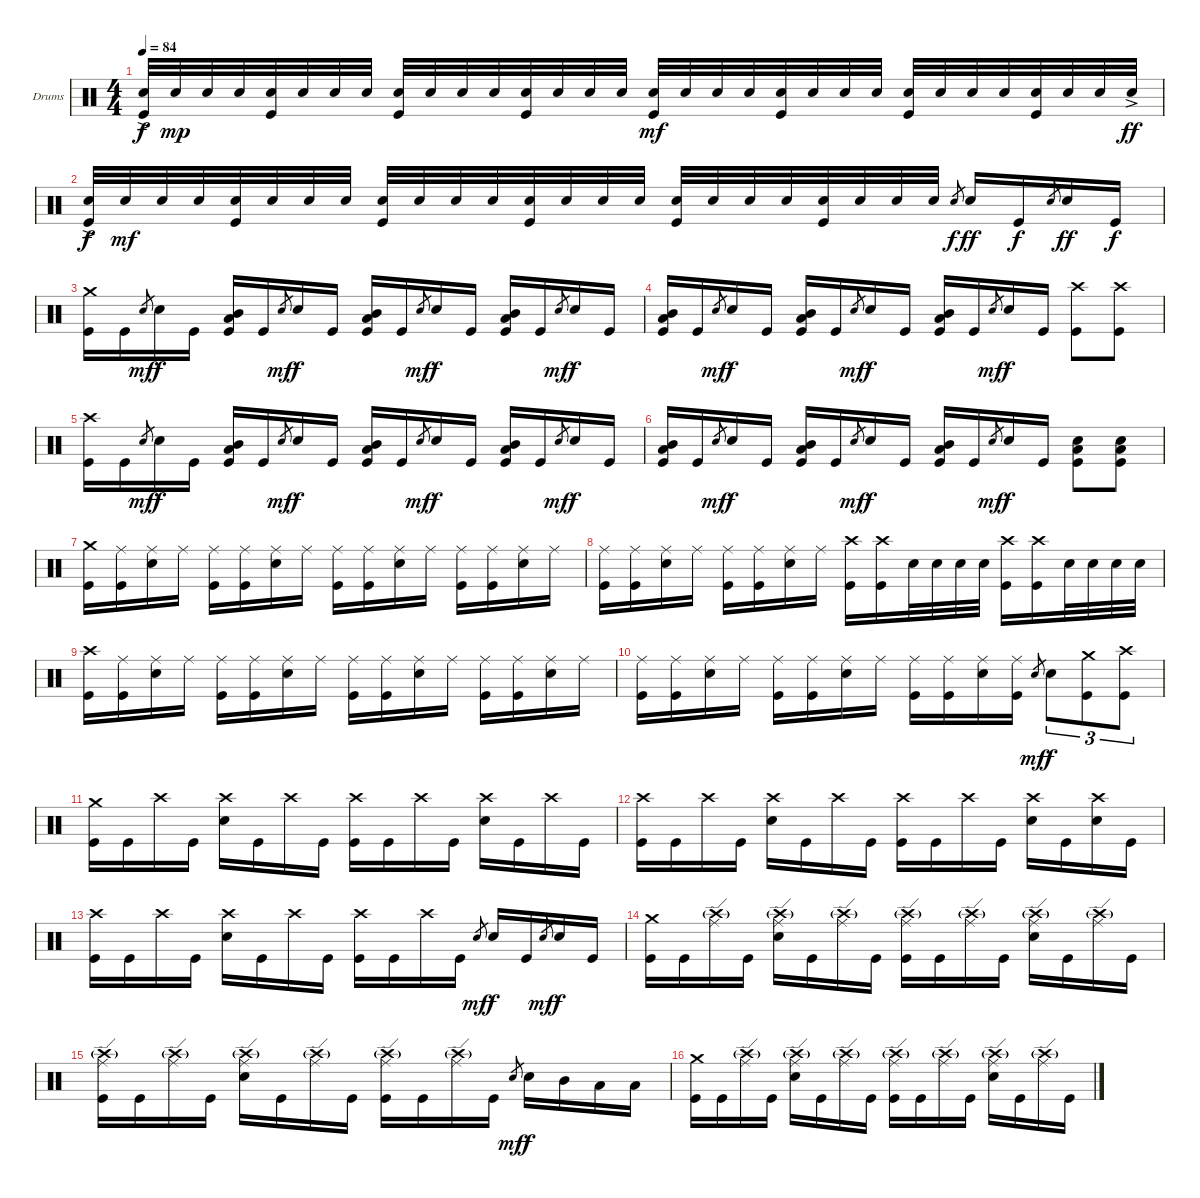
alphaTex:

\bracketExtendMode groupsimilarinstruments
\firstSystemTrackNameOrientation horizontal
\otherSystemsTrackNameOrientation horizontal
\track ("Drumkit" "Drums") {solo instrument percussion}
\staff {score}
\articulation defaults
\ts (4 4)
\tempo 84
\clef neutral
\ks c
("Snare (hit) 2"{ac} "Kick (hit)").32{dy f} "Snare (hit) 2".32{dy mp} "Snare (hit) 2".32 "Snare (hit) 2".32 ("Snare (hit) 2" "Kick (hit)").32 "Snare (hit) 2".32 "Snare (hit) 2".32 "Snare (hit) 2".32 ("Snare (hit) 2" "Kick (hit)").32 "Snare (hit) 2".32 "Snare (hit) 2".32 "Snare (hit) 2".32 ("Snare (hit) 2" "Kick (hit)").32 "Snare (hit) 2".32 "Snare (hit) 2".32 "Snare (hit) 2".32 ("Snare (hit) 2" "Kick (hit)").32{dy mf} "Snare (hit) 2".32 "Snare (hit) 2".32 "Snare (hit) 2".32 ("Snare (hit) 2" "Kick (hit)").32 "Snare (hit) 2".32 "Snare (hit) 2".32 "Snare (hit) 2".32 ("Snare (hit) 2" "Kick (hit)").32 "Snare (hit) 2".32 "Snare (hit) 2".32 "Snare (hit) 2".32 ("Snare (hit) 2" "Kick (hit)").32 "Snare (hit) 2".32 "Snare (hit) 2".32 "Snare (hit) 2"{ac}.32{dy ff} |
("Snare (hit) 2"{ac} "Kick (hit)").32{dy f} "Snare (hit) 2".32{dy mf} "Snare (hit) 2".32 "Snare (hit) 2".32 ("Snare (hit) 2" "Kick (hit)").32 "Snare (hit) 2".32 "Snare (hit) 2".32 "Snare (hit) 2".32 ("Snare (hit) 2" "Kick (hit)").32 "Snare (hit) 2".32 "Snare (hit) 2".32 "Snare (hit) 2".32 ("Snare (hit) 2" "Kick (hit)").32 "Snare (hit) 2".32 "Snare (hit) 2".32 "Snare (hit) 2".32 ("Snare (hit) 2" "Kick (hit)").32 "Snare (hit) 2".32 "Snare (hit) 2".32 "Snare (hit) 2".32 ("Snare (hit) 2" "Kick (hit)").32 "Snare (hit) 2".32 "Snare (hit) 2".32 "Snare (hit) 2".32 "Snare (hit) 2".8{gr dy f} "Snare (hit) 2".16{dy ff} "Kick (hit)".16{dy f} "Snare (hit) 2".8{gr} "Snare (hit) 2".16{dy ff} "Kick (hit)".16{dy f} |
("Crash medium (hit)" "Kick (hit)").16 "Kick (hit)".16 "Snare (hit) 2".8{gr dy mf} "Snare (hit) 2".16{dy f} "Kick (hit)".16 ("Mid Tom (hit)" "Low Tom (hit)" "Kick (hit)").16 "Kick (hit)".16 "Snare (hit) 2".8{gr dy mf} "Snare (hit) 2".16{dy f} "Kick (hit)".16 ("Mid Tom (hit)" "Low Tom (hit)" "Kick (hit)").16 "Kick (hit)".16 "Snare (hit) 2".8{gr dy mf} "Snare (hit) 2".16{dy f} "Kick (hit)".16 ("Mid Tom (hit)" "Low Tom (hit)" "Kick (hit)").16 "Kick (hit)".16 "Snare (hit) 2".8{gr dy mf} "Snare (hit) 2".16{dy f} "Kick (hit)".16 |
("Mid Tom (hit)" "Low Tom (hit)" "Kick (hit)").16 "Kick (hit)".16 "Snare (hit) 2".8{gr dy mf} "Snare (hit) 2".16{dy f} "Kick (hit)".16 ("Mid Tom (hit)" "Low Tom (hit)" "Kick (hit)").16 "Kick (hit)".16 "Snare (hit) 2".8{gr dy mf} "Snare (hit) 2".16{dy f} "Kick (hit)".16 ("Mid Tom (hit)" "Low Tom (hit)" "Kick (hit)").16 "Kick (hit)".16 "Snare (hit) 2".8{gr dy mf} "Snare (hit) 2".16{dy f} "Kick (hit)".16 ("Crash high (hit)" "Kick (hit)").8 ("Crash high (hit)" "Kick (hit)").8 |
("Crash high (hit)" "Kick (hit)").16 "Kick (hit)".16 "Snare (hit) 2".8{gr dy mf} "Snare (hit) 2".16{dy f} "Kick (hit)".16 ("Mid Tom (hit)" "Low Tom (hit)" "Kick (hit)").16 "Kick (hit)".16 "Snare (hit) 2".8{gr dy mf} "Snare (hit) 2".16{dy f} "Kick (hit)".16 ("Mid Tom (hit)" "Low Tom (hit)" "Kick (hit)").16 "Kick (hit)".16 "Snare (hit) 2".8{gr dy mf} "Snare (hit) 2".16{dy f} "Kick (hit)".16 ("Mid Tom (hit)" "Low Tom (hit)" "Kick (hit)").16 "Kick (hit)".16 "Snare (hit) 2".8{gr dy mf} "Snare (hit) 2".16{dy f} "Kick (hit)".16 |
("Mid Tom (hit)" "Low Tom (hit)" "Kick (hit)").16 "Kick (hit)".16 "Snare (hit) 2".8{gr dy mf} "Snare (hit) 2".16{dy f} "Kick (hit)".16 ("Mid Tom (hit)" "Low Tom (hit)" "Kick (hit)").16 "Kick (hit)".16 "Snare (hit) 2".8{gr dy mf} "Snare (hit) 2".16{dy f} "Kick (hit)".16 ("Mid Tom (hit)" "Low Tom (hit)" "Kick (hit)").16 "Kick (hit)".16 "Snare (hit) 2".8{gr dy mf} "Snare (hit) 2".16{dy f} "Kick (hit)".16 ("Snare (hit) 2" "Low Tom (hit)" "Kick (hit)").8 ("Snare (hit) 2" "Low Tom (hit)" "Kick (hit)").8 |
("Crash medium (hit)" "Kick (hit)").16 ("Ride (middle)" "Kick (hit)").16 ("Ride (middle)" "Snare (hit) 2").16 "Ride (middle)".16 ("Ride (middle)" "Kick (hit)").16 ("Ride (middle)" "Kick (hit)").16 ("Ride (middle)" "Snare (hit) 2").16 "Ride (middle)".16 ("Ride (middle)" "Kick (hit)").16 ("Ride (middle)" "Kick (hit)").16 ("Ride (middle)" "Snare (hit) 2").16 "Ride (middle)".16 ("Ride (middle)" "Kick (hit)").16 ("Ride (middle)" "Kick (hit)").16 ("Ride (middle)" "Snare (hit) 2").16 "Ride (middle)".16 |
("Ride (middle)" "Kick (hit)").16 ("Ride (middle)" "Kick (hit)").16 ("Ride (middle)" "Snare (hit) 2").16 "Ride (middle)".16 ("Ride (middle)" "Kick (hit)").16 ("Ride (middle)" "Kick (hit)").16 ("Ride (middle)" "Snare (hit) 2").16 "Ride (middle)".16 ("Crash high (hit)" "Kick (hit)").16 ("Crash high (hit)" "Kick (hit)").16 "Snare (hit) 2".32 "Snare (hit) 2".32 "Snare (hit) 2".32 "Snare (hit) 2".32 ("Crash high (hit)" "Kick (hit)").16 ("Crash high (hit)" "Kick (hit)").16 "Snare (hit) 2".32 "Snare (hit) 2".32 "Snare (hit) 2".32 "Snare (hit) 2".32 |
("Crash high (hit)" "Kick (hit)").16 ("Ride (middle)" "Kick (hit)").16 ("Ride (middle)" "Snare (hit) 2").16 "Ride (middle)".16 ("Ride (middle)" "Kick (hit)").16 ("Ride (middle)" "Kick (hit)").16 ("Ride (middle)" "Snare (hit) 2").16 "Ride (middle)".16 ("Ride (middle)" "Kick (hit)").16 ("Ride (middle)" "Kick (hit)").16 ("Ride (middle)" "Snare (hit) 2").16 "Ride (middle)".16 ("Ride (middle)" "Kick (hit)").16 ("Ride (middle)" "Kick (hit)").16 ("Ride (middle)" "Snare (hit) 2").16 "Ride (middle)".16 |
("Ride (middle)" "Kick (hit)").16 ("Ride (middle)" "Kick (hit)").16 ("Ride (middle)" "Snare (hit) 2").16 "Ride (middle)".16 ("Ride (middle)" "Kick (hit)").16 ("Ride (middle)" "Kick (hit)").16 ("Ride (middle)" "Snare (hit) 2").16 "Ride (middle)".16 ("Ride (middle)" "Kick (hit)").16 ("Ride (middle)" "Kick (hit)").16 ("Ride (middle)" "Snare (hit) 2").16 ("Ride (middle)" "Kick (hit)").16 "Snare (hit) 2".8{gr dy mf} "Snare (hit) 2".8{tu (3 2) dy f} ("Crash medium (hit)" "Kick (hit)").8{tu (3 2)} ("Crash high (hit)" "Kick (hit)").8{tu (3 2)} |
("Crash medium (hit)" "Kick (hit)").16 "Kick (hit)".16 "Crash high (hit)".16 "Kick (hit)".16 ("Crash high (hit)" "Snare (hit) 2").16 "Kick (hit)".16 "Crash high (hit)".16 "Kick (hit)".16 ("Crash high (hit)" "Kick (hit)").16 "Kick (hit)".16 "Crash high (hit)".16 "Kick (hit)".16 ("Crash high (hit)" "Snare (hit) 2").16 "Kick (hit)".16 "Crash high (hit)".16 "Kick (hit)".16 |
("Crash high (hit)" "Kick (hit)").16 "Kick (hit)".16 "Crash high (hit)".16 "Kick (hit)".16 ("Crash high (hit)" "Snare (hit) 2").16 "Kick (hit)".16 "Crash high (hit)".16 "Kick (hit)".16 ("Crash high (hit)" "Kick (hit)").16 "Kick (hit)".16 "Crash high (hit)".16 "Kick (hit)".16 ("Crash high (hit)" "Snare (hit) 2").16 "Kick (hit)".16 ("Crash high (hit)" "Snare (hit) 2").16 "Kick (hit)".16 |
("Crash high (hit)" "Kick (hit)").16 "Kick (hit)".16 "Crash high (hit)".16 "Kick (hit)".16 ("Crash high (hit)" "Snare (hit) 2").16 "Kick (hit)".16 "Crash high (hit)".16 "Kick (hit)".16 ("Crash high (hit)" "Kick (hit)").16 "Kick (hit)".16 "Crash high (hit)".16 "Kick (hit)".16 "Snare (hit) 2".8{gr dy mf} "Snare (hit) 2".16{dy f} "Kick (hit)".16 "Snare (hit) 2".8{gr dy mf} "Snare (hit) 2".16{dy f} "Kick (hit)".16 |
("Crash medium (hit)" "Kick (hit)").16 "Kick (hit)".16 ("Ride (edge)" "Crash high (hit)"{g}).16 "Kick (hit)".16 ("Ride (edge)" "Crash high (hit)"{g} "Snare (hit) 2").16 "Kick (hit)".16 ("Ride (edge)" "Crash high (hit)"{g}).16 "Kick (hit)".16 ("Ride (edge)" "Crash high (hit)"{g} "Kick (hit)").16 "Kick (hit)".16 ("Ride (edge)" "Crash high (hit)"{g}).16 "Kick (hit)".16 ("Ride (edge)" "Crash high (hit)"{g} "Snare (hit) 2").16 "Kick (hit)".16 ("Ride (edge)" "Crash high (hit)"{g}).16 "Kick (hit)".16 |
("Ride (edge)" "Crash high (hit)"{g} "Kick (hit)").16 "Kick (hit)".16 ("Ride (edge)" "Crash high (hit)"{g}).16 "Kick (hit)".16 ("Ride (edge)" "Crash high (hit)"{g} "Snare (hit) 2").16 "Kick (hit)".16 ("Ride (edge)" "Crash high (hit)"{g}).16 "Kick (hit)".16 ("Ride (edge)" "Crash high (hit)"{g} "Kick (hit)").16 "Kick (hit)".16 ("Ride (edge)" "Crash high (hit)"{g}).16 "Kick (hit)".16 "Snare (hit) 2".8{gr dy mf} "Snare (hit) 2".16{dy f} "Mid Tom (hit)".16 "Low Tom (hit)".16 "Low Tom (hit)".16 |
("Crash medium (hit)" "Kick (hit)").16 "Kick (hit)".16 ("Ride (edge)" "Crash high (hit)"{g}).16 "Kick (hit)".16 ("Ride (edge)" "Crash high (hit)"{g} "Snare (hit) 2").16 "Kick (hit)".16 ("Ride (edge)" "Crash high (hit)"{g}).16 "Kick (hit)".16 ("Ride (edge)" "Crash high (hit)"{g} "Kick (hit)").16 "Kick (hit)".16 ("Ride (edge)" "Crash high (hit)"{g}).16 "Kick (hit)".16 ("Ride (edge)" "Crash high (hit)"{g} "Snare (hit) 2").16 "Kick (hit)".16 ("Ride (edge)" "Crash high (hit)"{g}).16 "Kick (hit)".16
